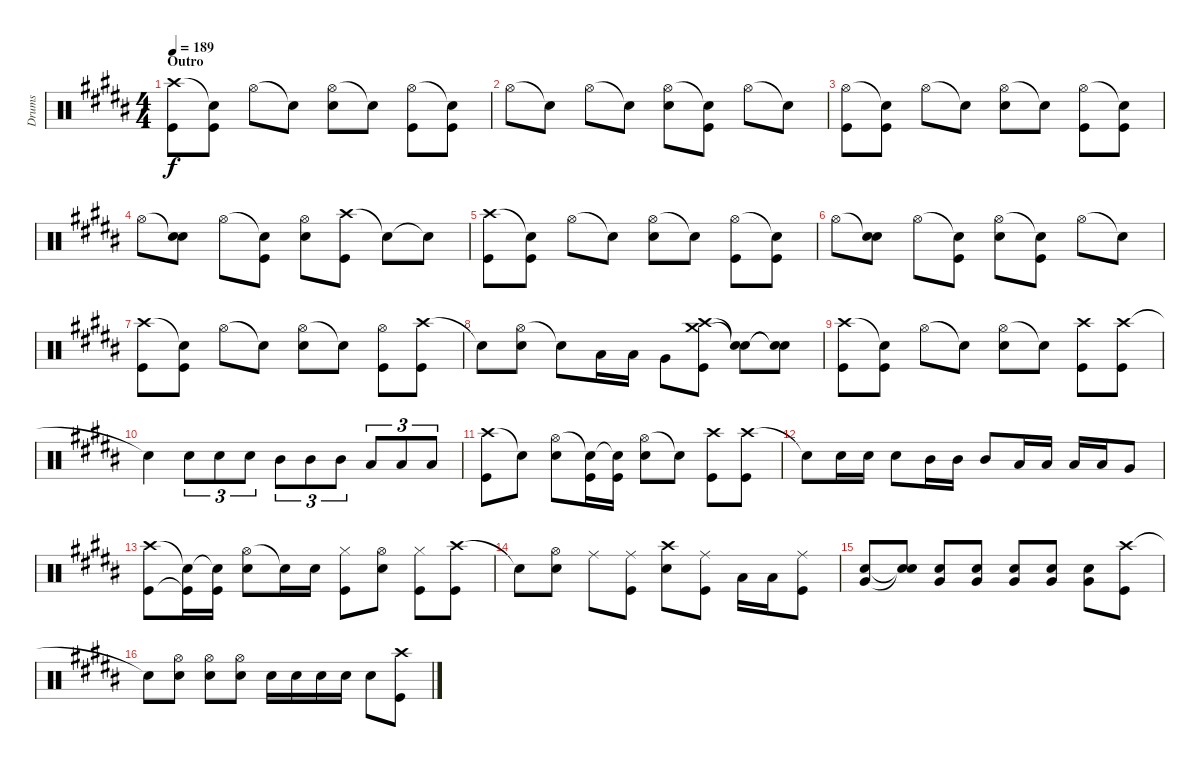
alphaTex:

\track ("Drums" "Drums") {instrument percussion}
\staff {score}
\articulation defaults
\ts (4 4)
\section ("" "Outro")
\tempo 189
\clef neutral
\ks b
("Crash high (hit)" "Kick (hit)").8{dy f} ("Snare (hit)"{t} "Kick (hit)").8 "Hi-Hat (open)".8 "Snare (hit)"{t}.8 ("Hi-Hat (open)" "Snare (hit) 2").8 "Snare (hit)"{t}.8 ("Hi-Hat (open)" "Kick (hit)").8 ("Snare (hit)"{t} "Kick (hit)").8 |
"Hi-Hat (open)".8 "Snare (hit)"{t}.8 "Hi-Hat (open)".8 "Snare (hit)"{t}.8 ("Hi-Hat (open)" "Snare (hit) 2").8 ("Snare (hit)"{t} "Kick (hit)").8 "Hi-Hat (open)".8 "Snare (hit)"{t}.8 |
("Hi-Hat (open)" "Kick (hit)").8 ("Snare (hit)"{t} "Kick (hit)").8 "Hi-Hat (open)".8 "Snare (hit)"{t}.8 ("Hi-Hat (open)" "Snare (hit) 2").8 "Snare (hit)"{t}.8 ("Hi-Hat (open)" "Kick (hit)").8 ("Snare (hit)"{t} "Kick (hit)").8 |
"Hi-Hat (open)".8 ("Snare (hit)"{t} "Snare (hit) 2").8 "Hi-Hat (open)".8 ("Snare (hit)"{t} "Kick (hit)").8 ("Hi-Hat (open)" "Snare (hit) 2").8 ("Crash high (hit)" "Kick (hit)").8 "Snare (hit)"{t}.8 "Snare (hit)"{t}.8 |
("Crash high (hit)" "Kick (hit)").8 ("Snare (hit)"{t} "Kick (hit)").8 "Hi-Hat (open)".8 "Snare (hit)"{t}.8 ("Hi-Hat (open)" "Snare (hit) 2").8 "Snare (hit)"{t}.8 ("Hi-Hat (open)" "Kick (hit)").8 ("Snare (hit)"{t} "Kick (hit)").8 |
"Hi-Hat (open)".8 ("Snare (hit)"{t} "Snare (hit) 2").8 "Hi-Hat (open)".8 ("Snare (hit)"{t} "Kick (hit)").8 ("Hi-Hat (open)" "Snare (hit) 2").8 ("Snare (hit)"{t} "Kick (hit)").8 "Hi-Hat (open)".8 "Snare (hit)"{t}.8 |
("Crash high (hit)" "Kick (hit)").8 ("Snare (hit)"{t} "Kick (hit)").8 "Hi-Hat (open)".8 "Snare (hit)"{t}.8 ("Hi-Hat (open)" "Snare (hit) 2").8 "Snare (hit)"{t}.8 ("Hi-Hat (open)" "Kick (hit)").8 ("Crash high (hit)" "Kick (hit)").8 |
"Snare (hit)"{t}.8 ("Hi-Hat (open)" "Snare (hit) 2").8 "Snare (hit)"{t}.8 "Low Tom (hit)".16 "Low Tom (hit)".16 "Very Low Tom (hit)".8 ("Crash high (hit)" "Crash medium (hit)" "Kick (hit)").8 ("Snare (hit)"{t} "Snare (hit)"{t}).8 ("Snare (hit)"{t} "Snare (hit)"{t}).8 |
("Crash high (hit)" "Kick (hit)").8 ("Snare (hit)"{t} "Kick (hit)").8 "Hi-Hat (open)".8 "Snare (hit)"{t}.8 ("Hi-Hat (open)" "Snare (hit) 2").8 "Snare (hit)"{t}.8 ("Crash high (hit)" "Kick (hit)").8 ("Crash high (hit)" "Kick (hit)").8 |
"Snare (hit)"{t}.4 "Snare (hit) 2".8{tu (3 2)} "Snare (hit) 2".8{tu (3 2)} "Snare (hit) 2".8{tu (3 2)} "Mid Tom (hit)".8{tu (3 2)} "Mid Tom (hit)".8{tu (3 2)} "Mid Tom (hit)".8{tu (3 2)} "Low Tom (hit)".8{tu (3 2)} "Low Tom (hit)".8{tu (3 2)} "Low Tom (hit)".8{tu (3 2)} |
("Crash high (hit)" "Kick (hit)").8 "Snare (hit)"{t}.8 ("Hi-Hat (open)" "Snare (hit) 2").8 ("Snare (hit)"{t} "Kick (hit)").16 ("Snare (hit)"{t} "Kick (hit)").16 ("Hi-Hat (open)" "Snare (hit) 2").8 "Snare (hit)"{t}.8 ("Crash high (hit)" "Kick (hit)").8 ("Crash high (hit)" "Kick (hit)").8 |
"Snare (hit)"{t}.8 "Snare (hit) 2".16 "Snare (hit) 2".16 "Snare (hit) 2".8 "Mid Tom (hit)".16 "Mid Tom (hit)".16 "Mid Tom (hit)".8 "Low Tom (hit)".16 "Low Tom (hit)".16 "Low Tom (hit)".16 "Low Tom (hit)".16 "Very Low Tom (hit)".8 |
("Crash high (hit)" "Kick (hit)").8 ("Snare (hit)"{t} "Kick (hit)"{t}).16 ("Snare (hit)"{t} "Kick (hit)").16 ("Hi-Hat (open)" "Snare (hit) 2").8 "Snare (hit)"{t}.16 "Snare (hit) 2".16 ("Hi-Hat (closed)" "Kick (hit)").8 ("Hi-Hat (open)" "Snare (hit) 2").8 ("Hi-Hat (closed)" "Kick (hit)").8 ("Crash high (hit)" "Kick (hit)").8 |
"Snare (hit)"{t}.8 ("Hi-Hat (open)" "Snare (hit) 2").8 "Ride (middle)".8 ("Ride (middle)" "Kick (hit)").8 ("Crash high (hit)" "Snare (hit) 2").8 ("Ride (middle)" "Kick (hit)").8 "Low Tom (hit)".16 "Low Tom (hit)".16 ("Ride (middle)" "Kick (hit)").8 |
("Snare (hit) 2" "Very Low Tom (hit)").8 ("Snare (hit)"{t} "Snare (hit)"{t}).8 ("Snare (hit) 2" "Very Low Tom (hit)").8 ("Snare (hit) 2" "Very Low Tom (hit)").8 ("Snare (hit) 2" "Very Low Tom (hit)").8 ("Snare (hit) 2" "Very Low Tom (hit)").8 ("Snare (hit) 2" "Very Low Tom (hit)").8 ("Crash high (hit)" "Kick (hit)").8 |
"Snare (hit)"{t}.8 ("Hi-Hat (open)" "Snare (hit) 2").8 ("Hi-Hat (open)" "Snare (hit) 2").8 ("Hi-Hat (open)" "Snare (hit) 2").8 "Snare (hit) 2".16 "Snare (hit) 2".16 "Snare (hit) 2".16 "Snare (hit) 2".16 "Snare (hit) 2".8 ("Crash high (hit)" "Kick (hit)").8
